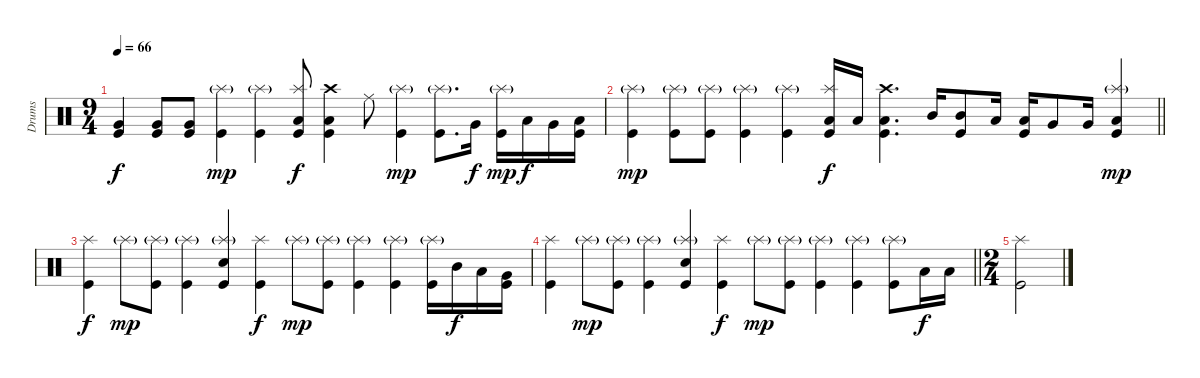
\track ("Drums" "Drums") {instrument percussion}
\staff
\articulation defaults
\ts (9 4)
\tempo 66
\clef neutral
\ks c
("Very Low Tom (hit)" "Kick (hit)").4{dy f} ("Very Low Tom (hit)" "Kick (hit)").8 ("Very Low Tom (hit)" "Kick (hit)").8 ("Splash (hit)"{g} "Kick (hit)").4{dy mp} ("Splash (hit)"{g} "Kick (hit)").4 ("Splash (hit)" "Low Floor Tom (hit)" "Kick (hit)").8{dy f} ("Crash high (hit)" "Low Floor Tom (hit)" "Kick (hit)").4 "Ride (middle)".8 ("Splash (hit)"{g} "Kick (hit)").4{dy mp} ("Splash (hit)"{g} "Kick (hit)").8{d} "Very Low Tom (hit)".16{dy f} ("Splash (hit)"{g} "Kick (hit)").16{dy mp} "Low Floor Tom (hit)".16{dy f} "Very Low Tom (hit)".16 ("Low Tom (hit)" "Kick (hit)").16 |
\barLineRight lightlight
("Splash (hit)"{g} "Kick (hit)").4{dy mp} ("Splash (hit)"{g} "Kick (hit)").8 ("Splash (hit)"{g} "Kick (hit)").8 ("Splash (hit)"{g} "Kick (hit)").4 ("Splash (hit)"{g} "Kick (hit)").4 ("Splash (hit)" "Low Floor Tom (hit)" "Kick (hit)").16{dy f} "Low Floor Tom (hit)".16 ("Crash high (hit)" "Low Floor Tom (hit)" "Kick (hit)").4{d} "Mid Tom (hit)".16 ("Mid Tom (hit)" "Kick (hit)").8 "Low Tom (hit)".16 ("Low Tom (hit)" "Kick (hit)").16 "Very Low Tom (hit)".8 "Very Low Tom (hit)".16 ("Splash (hit)"{g} "Low Floor Tom (hit)" "Kick (hit)").4{dy mp} |
\section ("" "")
("Splash (hit)" "Kick (hit)").4{dy f} "Splash (hit)"{g}.8{dy mp} ("Splash (hit)"{g} "Kick (hit)").8 ("Splash (hit)"{g} "Kick (hit)").4 ("Splash (hit)"{g} "Electric Snare (hit)" "Kick (hit)").4 ("Splash (hit)" "Kick (hit)").4{dy f} "Splash (hit)"{g}.8{dy mp} ("Splash (hit)"{g} "Kick (hit)").8 ("Splash (hit)"{g} "Kick (hit)").4 ("Splash (hit)"{g} "Kick (hit)").4 ("Splash (hit)"{g} "Kick (hit)").16 "Mid Tom (hit)".16{dy f} "Low Tom (hit)".16 ("Very Low Tom (hit)" "Kick (hit)").16 |
\barLineRight lightlight
("Splash (hit)" "Kick (hit)").4 "Splash (hit)"{g}.8{dy mp} ("Splash (hit)"{g} "Kick (hit)").8 ("Splash (hit)"{g} "Kick (hit)").4 ("Splash (hit)"{g} "Electric Snare (hit)" "Kick (hit)").4 ("Splash (hit)" "Kick (hit)").4{dy f} "Splash (hit)"{g}.8{dy mp} ("Splash (hit)"{g} "Kick (hit)").8 ("Splash (hit)"{g} "Kick (hit)").4 ("Splash (hit)"{g} "Kick (hit)").4 ("Splash (hit)"{g} "Kick (hit)").8 "Low Tom (hit)".16{dy f} "Low Tom (hit)".16 |
\ts (2 4)
("Splash (hit)" "Kick (hit)").2
